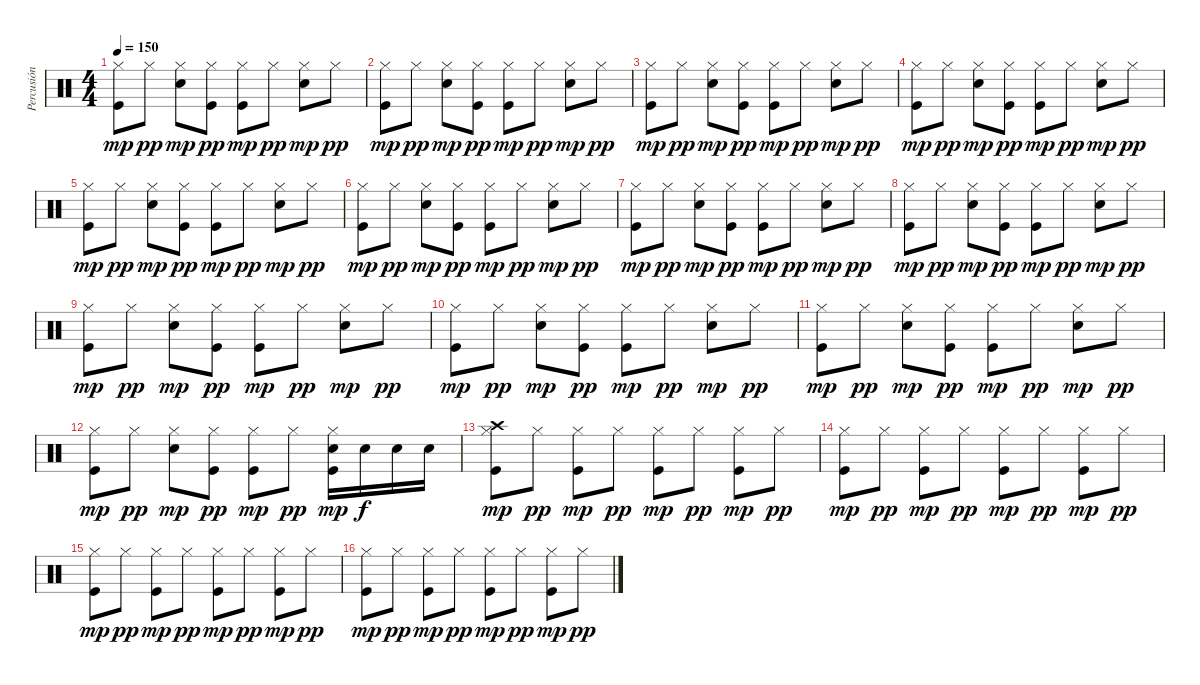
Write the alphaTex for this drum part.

\track ("Percusión" "Percusión") {instrument percussion}
\staff {score}
\articulation defaults
\ts (4 4)
\tempo 150
\clef neutral
\ks c
("Hi-Hat (closed)" "Kick (hit)").8{dy mp} "Hi-Hat (closed)".8{dy pp} ("Hi-Hat (closed)" "Snare (hit) 2").8{dy mp} ("Hi-Hat (closed)" "Kick (hit)").8{dy pp} ("Hi-Hat (closed)" "Kick (hit)").8{dy mp} "Hi-Hat (closed)".8{dy pp} ("Hi-Hat (closed)" "Snare (hit) 2").8{dy mp} "Hi-Hat (closed)".8{dy pp} |
("Hi-Hat (closed)" "Kick (hit)").8{dy mp} "Hi-Hat (closed)".8{dy pp} ("Hi-Hat (closed)" "Snare (hit) 2").8{dy mp} ("Hi-Hat (closed)" "Kick (hit)").8{dy pp} ("Hi-Hat (closed)" "Kick (hit)").8{dy mp} "Hi-Hat (closed)".8{dy pp} ("Hi-Hat (closed)" "Snare (hit) 2").8{dy mp} "Hi-Hat (closed)".8{dy pp} |
("Hi-Hat (closed)" "Kick (hit)").8{dy mp} "Hi-Hat (closed)".8{dy pp} ("Hi-Hat (closed)" "Snare (hit) 2").8{dy mp} ("Hi-Hat (closed)" "Kick (hit)").8{dy pp} ("Hi-Hat (closed)" "Kick (hit)").8{dy mp} "Hi-Hat (closed)".8{dy pp} ("Hi-Hat (closed)" "Snare (hit) 2").8{dy mp} "Hi-Hat (closed)".8{dy pp} |
("Hi-Hat (closed)" "Kick (hit)").8{dy mp} "Hi-Hat (closed)".8{dy pp} ("Hi-Hat (closed)" "Snare (hit) 2").8{dy mp} ("Hi-Hat (closed)" "Kick (hit)").8{dy pp} ("Hi-Hat (closed)" "Kick (hit)").8{dy mp} "Hi-Hat (closed)".8{dy pp} ("Hi-Hat (closed)" "Snare (hit) 2").8{dy mp} "Hi-Hat (closed)".8{dy pp} |
("Hi-Hat (closed)" "Kick (hit)").8{dy mp} "Hi-Hat (closed)".8{dy pp} ("Hi-Hat (closed)" "Snare (hit) 2").8{dy mp} ("Hi-Hat (closed)" "Kick (hit)").8{dy pp} ("Hi-Hat (closed)" "Kick (hit)").8{dy mp} "Hi-Hat (closed)".8{dy pp} ("Hi-Hat (closed)" "Snare (hit) 2").8{dy mp} "Hi-Hat (closed)".8{dy pp} |
("Hi-Hat (closed)" "Kick (hit)").8{dy mp} "Hi-Hat (closed)".8{dy pp} ("Hi-Hat (closed)" "Snare (hit) 2").8{dy mp} ("Hi-Hat (closed)" "Kick (hit)").8{dy pp} ("Hi-Hat (closed)" "Kick (hit)").8{dy mp} "Hi-Hat (closed)".8{dy pp} ("Hi-Hat (closed)" "Snare (hit) 2").8{dy mp} "Hi-Hat (closed)".8{dy pp} |
("Hi-Hat (closed)" "Kick (hit)").8{dy mp} "Hi-Hat (closed)".8{dy pp} ("Hi-Hat (closed)" "Snare (hit) 2").8{dy mp} ("Hi-Hat (closed)" "Kick (hit)").8{dy pp} ("Hi-Hat (closed)" "Kick (hit)").8{dy mp} "Hi-Hat (closed)".8{dy pp} ("Hi-Hat (closed)" "Snare (hit) 2").8{dy mp} "Hi-Hat (closed)".8{dy pp} |
("Hi-Hat (closed)" "Kick (hit)").8{dy mp} "Hi-Hat (closed)".8{dy pp} ("Hi-Hat (closed)" "Snare (hit) 2").8{dy mp} ("Hi-Hat (closed)" "Kick (hit)").8{dy pp} ("Hi-Hat (closed)" "Kick (hit)").8{dy mp} "Hi-Hat (closed)".8{dy pp} ("Hi-Hat (closed)" "Snare (hit) 2").8{dy mp} "Hi-Hat (closed)".8{dy pp} |
("Hi-Hat (closed)" "Kick (hit)").8{dy mp} "Hi-Hat (closed)".8{dy pp} ("Hi-Hat (closed)" "Snare (hit) 2").8{dy mp} ("Hi-Hat (closed)" "Kick (hit)").8{dy pp} ("Hi-Hat (closed)" "Kick (hit)").8{dy mp} "Hi-Hat (closed)".8{dy pp} ("Hi-Hat (closed)" "Snare (hit) 2").8{dy mp} "Hi-Hat (closed)".8{dy pp} |
("Hi-Hat (closed)" "Kick (hit)").8{dy mp} "Hi-Hat (closed)".8{dy pp} ("Hi-Hat (closed)" "Snare (hit) 2").8{dy mp} ("Hi-Hat (closed)" "Kick (hit)").8{dy pp} ("Hi-Hat (closed)" "Kick (hit)").8{dy mp} "Hi-Hat (closed)".8{dy pp} ("Hi-Hat (closed)" "Snare (hit) 2").8{dy mp} "Hi-Hat (closed)".8{dy pp} |
("Hi-Hat (closed)" "Kick (hit)").8{dy mp} "Hi-Hat (closed)".8{dy pp} ("Hi-Hat (closed)" "Snare (hit) 2").8{dy mp} ("Hi-Hat (closed)" "Kick (hit)").8{dy pp} ("Hi-Hat (closed)" "Kick (hit)").8{dy mp} "Hi-Hat (closed)".8{dy pp} ("Hi-Hat (closed)" "Snare (hit) 2").8{dy mp} "Hi-Hat (closed)".8{dy pp} |
("Hi-Hat (closed)" "Kick (hit)").8{dy mp} "Hi-Hat (closed)".8{dy pp} ("Hi-Hat (closed)" "Snare (hit) 2").8{dy mp} ("Hi-Hat (closed)" "Kick (hit)").8{dy pp} ("Hi-Hat (closed)" "Kick (hit)").8{dy mp} "Hi-Hat (closed)".8{dy pp} ("Hi-Hat (closed)" "Snare (hit) 2" "Kick (hit)").16{dy mp} "Snare (hit) 2".16{dy f} "Snare (hit) 2".16 "Snare (hit) 2".16 |
("Crash high (hit)" "Hi-Hat (closed)" "Kick (hit)").8{dy mp} "Hi-Hat (closed)".8{dy pp} ("Hi-Hat (closed)" "Kick (hit)").8{dy mp} "Hi-Hat (closed)".8{dy pp} ("Hi-Hat (closed)" "Kick (hit)").8{dy mp} "Hi-Hat (closed)".8{dy pp} ("Hi-Hat (closed)" "Kick (hit)").8{dy mp} "Hi-Hat (closed)".8{dy pp} |
("Hi-Hat (closed)" "Kick (hit)").8{dy mp} "Hi-Hat (closed)".8{dy pp} ("Hi-Hat (closed)" "Kick (hit)").8{dy mp} "Hi-Hat (closed)".8{dy pp} ("Hi-Hat (closed)" "Kick (hit)").8{dy mp} "Hi-Hat (closed)".8{dy pp} ("Hi-Hat (closed)" "Kick (hit)").8{dy mp} "Hi-Hat (closed)".8{dy pp} |
("Hi-Hat (closed)" "Kick (hit)").8{dy mp} "Hi-Hat (closed)".8{dy pp} ("Hi-Hat (closed)" "Kick (hit)").8{dy mp} "Hi-Hat (closed)".8{dy pp} ("Hi-Hat (closed)" "Kick (hit)").8{dy mp} "Hi-Hat (closed)".8{dy pp} ("Hi-Hat (closed)" "Kick (hit)").8{dy mp} "Hi-Hat (closed)".8{dy pp} |
("Hi-Hat (closed)" "Kick (hit)").8{dy mp} "Hi-Hat (closed)".8{dy pp} ("Hi-Hat (closed)" "Kick (hit)").8{dy mp} "Hi-Hat (closed)".8{dy pp} ("Hi-Hat (closed)" "Kick (hit)").8{dy mp} "Hi-Hat (closed)".8{dy pp} ("Hi-Hat (closed)" "Kick (hit)").8{dy mp} "Hi-Hat (closed)".8{dy pp}
